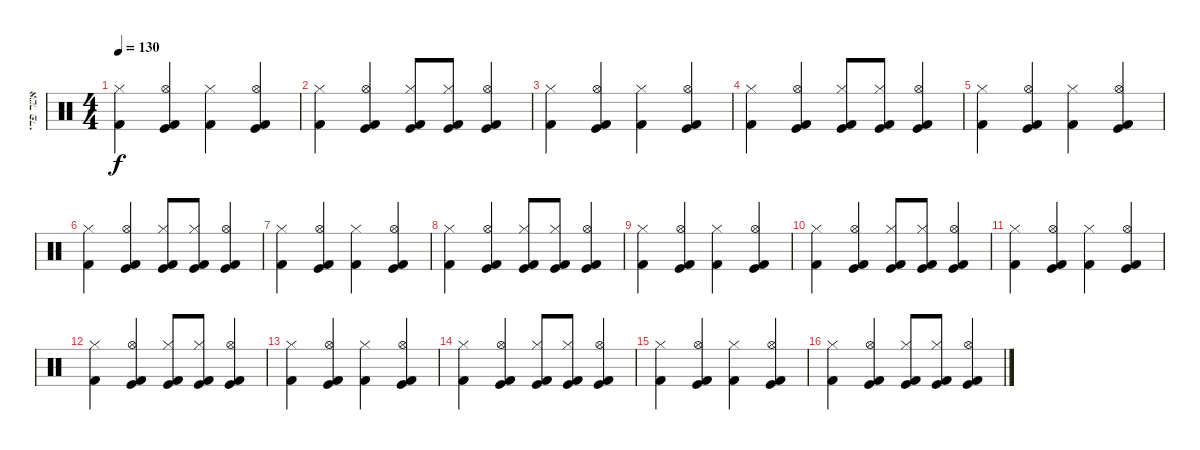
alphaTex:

\track ("אשר פדי" "אשר פדי") {instrument percussion}
\staff {score}
\articulation defaults
\ts (4 4)
\tempo 130
\clef neutral
\ks c
("Kick (hit) 2" "Hi-Hat (closed)").4{dy f} ("Hi-Hat (open)" "Kick (hit) 2" "Kick (hit)").4 ("Kick (hit) 2" "Hi-Hat (closed)").4 ("Hi-Hat (open)" "Kick (hit) 2" "Kick (hit)").4 |
("Kick (hit) 2" "Hi-Hat (closed)").4 ("Kick (hit) 2" "Hi-Hat (open)" "Kick (hit)").4 ("Kick (hit) 2" "Hi-Hat (closed)" "Kick (hit)").8 ("Kick (hit) 2" "Hi-Hat (closed)" "Kick (hit)").8 ("Hi-Hat (open)" "Kick (hit) 2" "Kick (hit)").4 |
("Kick (hit) 2" "Hi-Hat (closed)").4 ("Hi-Hat (open)" "Kick (hit) 2" "Kick (hit)").4 ("Kick (hit) 2" "Hi-Hat (closed)").4 ("Hi-Hat (open)" "Kick (hit) 2" "Kick (hit)").4 |
("Kick (hit) 2" "Hi-Hat (closed)").4 ("Kick (hit) 2" "Hi-Hat (open)" "Kick (hit)").4 ("Kick (hit) 2" "Hi-Hat (closed)" "Kick (hit)").8 ("Kick (hit) 2" "Hi-Hat (closed)" "Kick (hit)").8 ("Hi-Hat (open)" "Kick (hit) 2" "Kick (hit)").4 |
("Kick (hit) 2" "Hi-Hat (closed)").4 ("Hi-Hat (open)" "Kick (hit) 2" "Kick (hit)").4 ("Kick (hit) 2" "Hi-Hat (closed)").4 ("Hi-Hat (open)" "Kick (hit) 2" "Kick (hit)").4 |
("Kick (hit) 2" "Hi-Hat (closed)").4 ("Kick (hit) 2" "Hi-Hat (open)" "Kick (hit)").4 ("Kick (hit) 2" "Hi-Hat (closed)" "Kick (hit)").8 ("Kick (hit) 2" "Hi-Hat (closed)" "Kick (hit)").8 ("Hi-Hat (open)" "Kick (hit) 2" "Kick (hit)").4 |
("Kick (hit) 2" "Hi-Hat (closed)").4 ("Hi-Hat (open)" "Kick (hit) 2" "Kick (hit)").4 ("Kick (hit) 2" "Hi-Hat (closed)").4 ("Hi-Hat (open)" "Kick (hit) 2" "Kick (hit)").4 |
("Kick (hit) 2" "Hi-Hat (closed)").4 ("Kick (hit) 2" "Hi-Hat (open)" "Kick (hit)").4 ("Kick (hit) 2" "Hi-Hat (closed)" "Kick (hit)").8 ("Kick (hit) 2" "Hi-Hat (closed)" "Kick (hit)").8 ("Hi-Hat (open)" "Kick (hit) 2" "Kick (hit)").4 |
("Kick (hit) 2" "Hi-Hat (closed)").4 ("Hi-Hat (open)" "Kick (hit) 2" "Kick (hit)").4 ("Kick (hit) 2" "Hi-Hat (closed)").4 ("Hi-Hat (open)" "Kick (hit) 2" "Kick (hit)").4 |
("Kick (hit) 2" "Hi-Hat (closed)").4 ("Kick (hit) 2" "Hi-Hat (open)" "Kick (hit)").4 ("Kick (hit) 2" "Hi-Hat (closed)" "Kick (hit)").8 ("Kick (hit) 2" "Hi-Hat (closed)" "Kick (hit)").8 ("Hi-Hat (open)" "Kick (hit) 2" "Kick (hit)").4 |
("Kick (hit) 2" "Hi-Hat (closed)").4 ("Hi-Hat (open)" "Kick (hit) 2" "Kick (hit)").4 ("Kick (hit) 2" "Hi-Hat (closed)").4 ("Hi-Hat (open)" "Kick (hit) 2" "Kick (hit)").4 |
("Kick (hit) 2" "Hi-Hat (closed)").4 ("Kick (hit) 2" "Hi-Hat (open)" "Kick (hit)").4 ("Kick (hit) 2" "Hi-Hat (closed)" "Kick (hit)").8 ("Kick (hit) 2" "Hi-Hat (closed)" "Kick (hit)").8 ("Hi-Hat (open)" "Kick (hit) 2" "Kick (hit)").4 |
("Kick (hit) 2" "Hi-Hat (closed)").4 ("Hi-Hat (open)" "Kick (hit) 2" "Kick (hit)").4 ("Kick (hit) 2" "Hi-Hat (closed)").4 ("Hi-Hat (open)" "Kick (hit) 2" "Kick (hit)").4 |
("Kick (hit) 2" "Hi-Hat (closed)").4 ("Kick (hit) 2" "Hi-Hat (open)" "Kick (hit)").4 ("Kick (hit) 2" "Hi-Hat (closed)" "Kick (hit)").8 ("Kick (hit) 2" "Hi-Hat (closed)" "Kick (hit)").8 ("Hi-Hat (open)" "Kick (hit) 2" "Kick (hit)").4 |
("Kick (hit) 2" "Hi-Hat (closed)").4 ("Hi-Hat (open)" "Kick (hit) 2" "Kick (hit)").4 ("Kick (hit) 2" "Hi-Hat (closed)").4 ("Hi-Hat (open)" "Kick (hit) 2" "Kick (hit)").4 |
("Kick (hit) 2" "Hi-Hat (closed)").4 ("Kick (hit) 2" "Hi-Hat (open)" "Kick (hit)").4 ("Kick (hit) 2" "Hi-Hat (closed)" "Kick (hit)").8 ("Kick (hit) 2" "Hi-Hat (closed)" "Kick (hit)").8 ("Hi-Hat (open)" "Kick (hit) 2" "Kick (hit)").4
